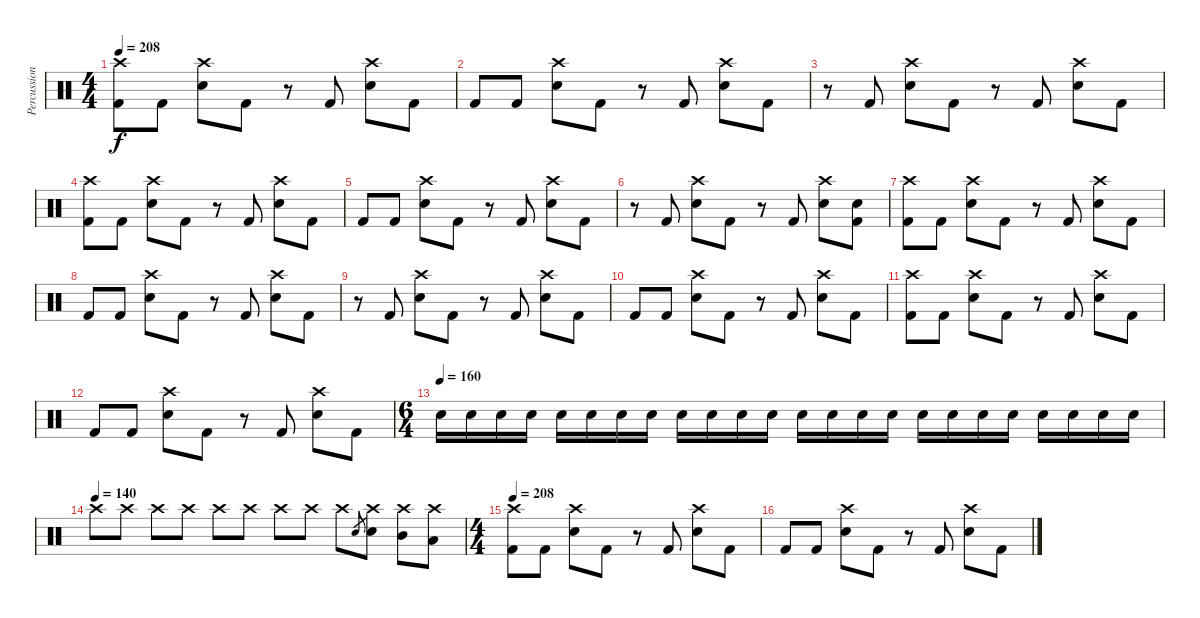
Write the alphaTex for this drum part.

\track ("Percussion" "Percussion") {instrument percussion}
\staff {score}
\articulation defaults
\ts (4 4)
\tempo 208
\clef neutral
\ks c
("Crash high (hit)" "Kick (hit) 2").8{dy f} "Kick (hit) 2".8 ("Crash high (hit)" "Electric Snare (hit)").8 "Kick (hit) 2".8 r.8 "Kick (hit) 2".8 ("Crash high (hit)" "Electric Snare (hit)").8 "Kick (hit) 2".8 |
"Kick (hit) 2".8 "Kick (hit) 2".8 ("Crash high (hit)" "Electric Snare (hit)").8 "Kick (hit) 2".8 r.8 "Kick (hit) 2".8 ("Crash high (hit)" "Electric Snare (hit)").8 "Kick (hit) 2".8 |
r.8 "Kick (hit) 2".8 ("Crash high (hit)" "Electric Snare (hit)").8 "Kick (hit) 2".8 r.8 "Kick (hit) 2".8 ("Crash high (hit)" "Electric Snare (hit)").8 "Kick (hit) 2".8 |
("Crash high (hit)" "Kick (hit) 2").8 "Kick (hit) 2".8 ("Crash high (hit)" "Electric Snare (hit)").8 "Kick (hit) 2".8 r.8 "Kick (hit) 2".8 ("Crash high (hit)" "Electric Snare (hit)").8 "Kick (hit) 2".8 |
"Kick (hit) 2".8 "Kick (hit) 2".8 ("Crash high (hit)" "Electric Snare (hit)").8 "Kick (hit) 2".8 r.8 "Kick (hit) 2".8 ("Crash high (hit)" "Electric Snare (hit)").8 "Kick (hit) 2".8 |
r.8 "Kick (hit) 2".8 ("Crash high (hit)" "Electric Snare (hit)").8 "Kick (hit) 2".8 r.8 "Kick (hit) 2".8 ("Crash high (hit)" "Electric Snare (hit)").8 ("Electric Snare (hit)" "Kick (hit) 2").8 |
("Crash high (hit)" "Kick (hit) 2").8 "Kick (hit) 2".8 ("Crash high (hit)" "Electric Snare (hit)").8 "Kick (hit) 2".8 r.8 "Kick (hit) 2".8 ("Crash high (hit)" "Electric Snare (hit)").8 "Kick (hit) 2".8 |
"Kick (hit) 2".8 "Kick (hit) 2".8 ("Crash high (hit)" "Electric Snare (hit)").8 "Kick (hit) 2".8 r.8 "Kick (hit) 2".8 ("Crash high (hit)" "Electric Snare (hit)").8 "Kick (hit) 2".8 |
r.8 "Kick (hit) 2".8 ("Crash high (hit)" "Electric Snare (hit)").8 "Kick (hit) 2".8 r.8 "Kick (hit) 2".8 ("Crash high (hit)" "Electric Snare (hit)").8 "Kick (hit) 2".8 |
"Kick (hit) 2".8 "Kick (hit) 2".8 ("Crash high (hit)" "Electric Snare (hit)").8 "Kick (hit) 2".8 r.8 "Kick (hit) 2".8 ("Crash high (hit)" "Electric Snare (hit)").8 "Kick (hit) 2".8 |
("Crash high (hit)" "Kick (hit) 2").8 "Kick (hit) 2".8 ("Crash high (hit)" "Electric Snare (hit)").8 "Kick (hit) 2".8 r.8 "Kick (hit) 2".8 ("Crash high (hit)" "Electric Snare (hit)").8 "Kick (hit) 2".8 |
"Kick (hit) 2".8 "Kick (hit) 2".8 ("Crash high (hit)" "Electric Snare (hit)").8 "Kick (hit) 2".8 r.8 "Kick (hit) 2".8 ("Crash high (hit)" "Electric Snare (hit)").8 "Kick (hit) 2".8 |
\ts (6 4)
\tempo (160)
"Electric Snare (hit)".16 "Electric Snare (hit)".16 "Electric Snare (hit)".16 "Electric Snare (hit)".16 "Electric Snare (hit)".16 "Electric Snare (hit)".16 "Electric Snare (hit)".16 "Electric Snare (hit)".16 "Electric Snare (hit)".16 "Electric Snare (hit)".16 "Electric Snare (hit)".16 "Electric Snare (hit)".16 "Electric Snare (hit)".16 "Electric Snare (hit)".16 "Electric Snare (hit)".16 "Electric Snare (hit)".16 "Electric Snare (hit)".16 "Electric Snare (hit)".16 "Electric Snare (hit)".16 "Electric Snare (hit)".16 "Electric Snare (hit)".16 "Electric Snare (hit)".16 "Electric Snare (hit)".16 "Electric Snare (hit)".16 |
\tempo (140)
"Crash high (hit)".8 "Crash high (hit)".8 "Crash high (hit)".8 "Crash high (hit)".8 "Crash high (hit)".8 "Crash high (hit)".8 "Crash high (hit)".8 "Crash high (hit)".8 "Crash high (hit)".8 "Electric Snare (hit)".8{gr} ("Crash high (hit)" "Electric Snare (hit)").8 ("Crash high (hit)" "Mid Tom (hit)").8 ("Crash high (hit)" "Low Tom (hit)").8 |
\ts (4 4)
\tempo 208
("Crash high (hit)" "Kick (hit) 2").8 "Kick (hit) 2".8 ("Crash high (hit)" "Electric Snare (hit)").8 "Kick (hit) 2".8 r.8 "Kick (hit) 2".8 ("Crash high (hit)" "Electric Snare (hit)").8 "Kick (hit) 2".8 |
"Kick (hit) 2".8 "Kick (hit) 2".8 ("Crash high (hit)" "Electric Snare (hit)").8 "Kick (hit) 2".8 r.8 "Kick (hit) 2".8 ("Crash high (hit)" "Electric Snare (hit)").8 "Kick (hit) 2".8
